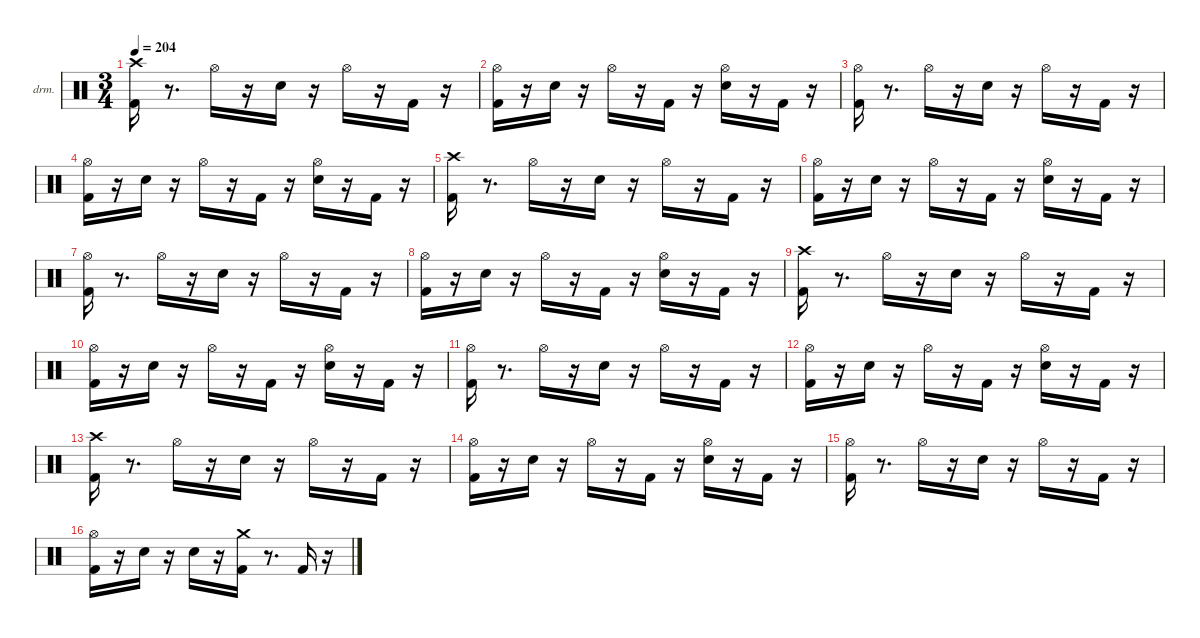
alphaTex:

\hideDynamics
\bracketExtendMode nobrackets
\firstSystemTrackNameOrientation horizontal
\track ("drums" "drm.") {instrument percussion}
\staff {score}
\articulation defaults
\ts (3 4)
\tempo 204
\clef neutral
\ks aminor
("Kick (hit) 2" "Crash high (hit)"{acc #}).16{dy fff beam Down} r.8{d beam Down} "Hi-Hat (open)"{acc #}.16{dy mf beam Down} r.16{beam Down} "Snare (hit) 2".16{dy ff beam Down} r.16{beam Down} "Hi-Hat (open)"{acc #}.16{dy f beam Down} r.16{beam Down} "Kick (hit) 2".16{dy mf beam Down} r.16{beam Down} |
("Kick (hit) 2" "Hi-Hat (open)"{acc #}).16{dy fff beam Down} r.16{beam Down} "Snare (hit) 2".16{dy ff beam Down} r.16{beam Down} "Hi-Hat (open)"{acc #}.16{dy mp beam Down} r.16{beam Down} "Kick (hit) 2".16{dy ff beam Down} r.16{beam Down} ("Snare (hit) 2" "Hi-Hat (open)"{acc #}).16{dy f beam Down} r.16{beam Down} "Kick (hit) 2".16{dy mp beam Down} r.16{beam Down} |
("Kick (hit) 2" "Hi-Hat (open)"{acc #}).16{dy fff beam Down} r.8{d beam Down} "Hi-Hat (open)"{acc #}.16{dy mf beam Down} r.16{beam Down} "Snare (hit) 2".16{dy ff beam Down} r.16{beam Down} "Hi-Hat (open)"{acc #}.16{dy f beam Down} r.16{beam Down} "Kick (hit) 2".16{dy mf beam Down} r.16{beam Down} |
("Kick (hit) 2" "Hi-Hat (open)"{acc #}).16{dy fff beam Down} r.16{beam Down} "Snare (hit) 2".16{dy ff beam Down} r.16{beam Down} "Hi-Hat (open)"{acc #}.16{dy mf beam Down} r.16{beam Down} "Kick (hit) 2".16{dy ff beam Down} r.16{beam Down} ("Snare (hit) 2" "Hi-Hat (open)"{acc #}).16{dy f beam Down} r.16{beam Down} "Kick (hit) 2".16{dy mp beam Down} r.16{beam Down} |
("Kick (hit) 2" "Crash high (hit)"{acc #}).16{dy fff beam Down} r.8{d beam Down} "Hi-Hat (open)"{acc #}.16{dy mf beam Down} r.16{beam Down} "Snare (hit) 2".16{dy ff beam Down} r.16{beam Down} "Hi-Hat (open)"{acc #}.16{dy f beam Down} r.16{beam Down} "Kick (hit) 2".16{dy mf beam Down} r.16{beam Down} |
("Kick (hit) 2" "Hi-Hat (open)"{acc #}).16{dy fff beam Down} r.16{beam Down} "Snare (hit) 2".16{dy ff beam Down} r.16{beam Down} "Hi-Hat (open)"{acc #}.16{dy mp beam Down} r.16{beam Down} "Kick (hit) 2".16{dy ff beam Down} r.16{beam Down} ("Snare (hit) 2" "Hi-Hat (open)"{acc #}).16{dy f beam Down} r.16{beam Down} "Kick (hit) 2".16{dy mp beam Down} r.16{beam Down} |
("Kick (hit) 2" "Hi-Hat (open)"{acc #}).16{dy fff beam Down} r.8{d beam Down} "Hi-Hat (open)"{acc #}.16{dy mp beam Down} r.16{beam Down} "Snare (hit) 2".16{dy ff beam Down} r.16{beam Down} "Hi-Hat (open)"{acc #}.16{dy f beam Down} r.16{beam Down} "Kick (hit) 2".16{dy mf beam Down} r.16{beam Down} |
("Kick (hit) 2" "Hi-Hat (open)"{acc #}).16{dy fff beam Down} r.16{beam Down} "Snare (hit) 2".16{dy ff beam Down} r.16{beam Down} "Hi-Hat (open)"{acc #}.16{dy mf beam Down} r.16{beam Down} "Kick (hit) 2".16{dy ff beam Down} r.16{beam Down} ("Snare (hit) 2" "Hi-Hat (open)"{acc #}).16{dy f beam Down} r.16{beam Down} "Kick (hit) 2".16{dy mp beam Down} r.16{beam Down} |
("Kick (hit) 2" "Crash high (hit)"{acc #}).16{dy fff beam Down} r.8{d beam Down} "Hi-Hat (open)"{acc #}.16{dy mf beam Down} r.16{beam Down} "Snare (hit) 2".16{dy ff beam Down} r.16{beam Down} "Hi-Hat (open)"{acc #}.16{dy f beam Down} r.16{beam Down} "Kick (hit) 2".16{dy mf beam Down} r.16{beam Down} |
("Kick (hit) 2" "Hi-Hat (open)"{acc #}).16{dy fff beam Down} r.16{beam Down} "Snare (hit) 2".16{dy ff beam Down} r.16{beam Down} "Hi-Hat (open)"{acc #}.16{dy mp beam Down} r.16{beam Down} "Kick (hit) 2".16{dy ff beam Down} r.16{beam Down} ("Snare (hit) 2" "Hi-Hat (open)"{acc #}).16{dy f beam Down} r.16{beam Down} "Kick (hit) 2".16{dy mp beam Down} r.16{beam Down} |
("Kick (hit) 2" "Hi-Hat (open)"{acc #}).16{dy fff beam Down} r.8{d beam Down} "Hi-Hat (open)"{acc #}.16{dy mp beam Down} r.16{beam Down} "Snare (hit) 2".16{dy ff beam Down} r.16{beam Down} "Hi-Hat (open)"{acc #}.16{dy f beam Down} r.16{beam Down} "Kick (hit) 2".16{dy mf beam Down} r.16{beam Down} |
("Kick (hit) 2" "Hi-Hat (open)"{acc #}).16{dy fff beam Down} r.16{beam Down} "Snare (hit) 2".16{dy ff beam Down} r.16{beam Down} "Hi-Hat (open)"{acc #}.16{dy mf beam Down} r.16{beam Down} "Kick (hit) 2".16{dy ff beam Down} r.16{beam Down} ("Snare (hit) 2" "Hi-Hat (open)"{acc #}).16{dy f beam Down} r.16{beam Down} "Kick (hit) 2".16{dy mp beam Down} r.16{beam Down} |
("Kick (hit) 2" "Crash high (hit)"{acc #}).16{dy fff beam Down} r.8{d beam Down} "Hi-Hat (open)"{acc #}.16{dy mf beam Down} r.16{beam Down} "Snare (hit) 2".16{dy ff beam Down} r.16{beam Down} "Hi-Hat (open)"{acc #}.16{dy f beam Down} r.16{beam Down} "Kick (hit) 2".16{dy mf beam Down} r.16{beam Down} |
("Kick (hit) 2" "Hi-Hat (open)"{acc #}).16{dy fff beam Down} r.16{beam Down} "Snare (hit) 2".16{dy ff beam Down} r.16{beam Down} "Hi-Hat (open)"{acc #}.16{dy mp beam Down} r.16{beam Down} "Kick (hit) 2".16{dy ff beam Down} r.16{beam Down} ("Snare (hit) 2" "Hi-Hat (open)"{acc #}).16{dy f beam Down} r.16{beam Down} "Kick (hit) 2".16{dy mp beam Down} r.16{beam Down} |
("Kick (hit) 2" "Hi-Hat (open)"{acc #}).16{dy fff beam Down} r.8{d beam Down} "Hi-Hat (open)"{acc #}.16{dy mp beam Down} r.16{beam Down} "Snare (hit) 2".16{dy ff beam Down} r.16{beam Down} "Hi-Hat (open)"{acc #}.16{dy f beam Down} r.16{beam Down} "Kick (hit) 2".16{dy mf beam Down} r.16{beam Down} |
("Kick (hit) 2" "Hi-Hat (open)"{acc #}).16{dy fff beam Down} r.16{beam Down} "Snare (hit) 2".16{dy ff beam Down} r.16{beam Down} "Snare (hit) 2".16{dy p beam Down} r.16{beam Down} ("Kick (hit) 2" "Crash medium (hit)").16{dy ff beam Down} r.8{d beam Down} "Kick (hit) 2".16{dy mf beam Up} r.16{beam Down}
